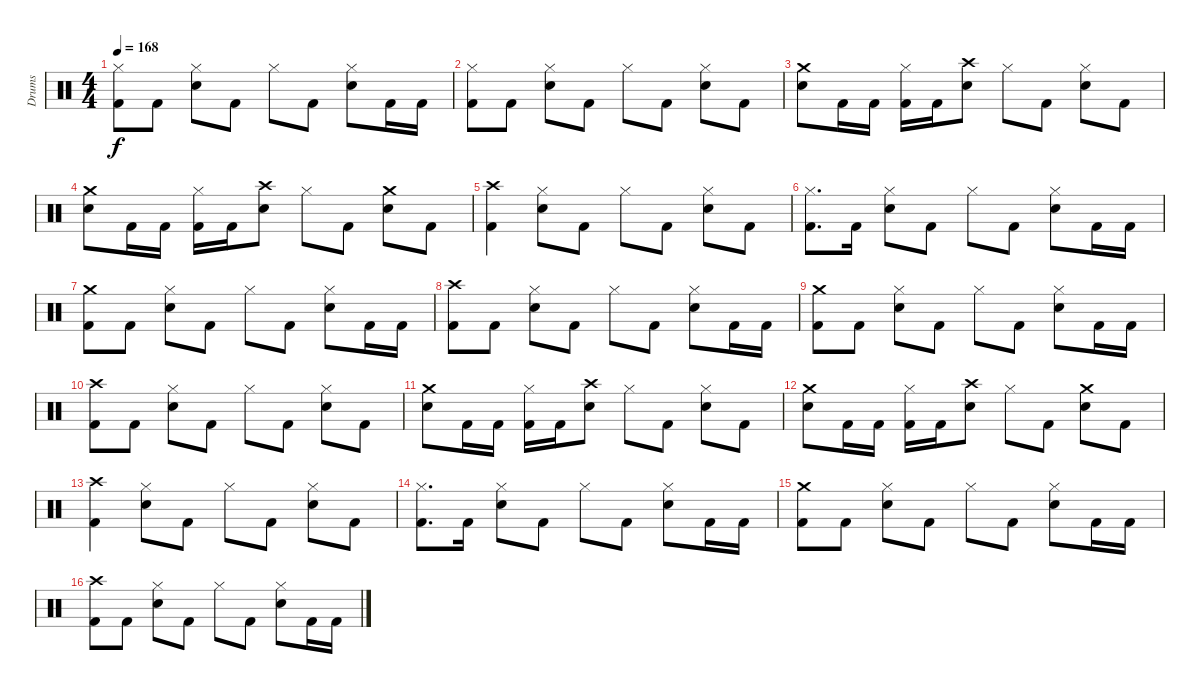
\bracketExtendMode groupsimilarinstruments
\track ("Drumkit" "Drums") {solo instrument percussion}
\staff {score}
\articulation defaults
\ts (4 4)
\tempo 168
\clef neutral
\ks c
("Hi-Hat (closed)" "Kick (hit) 2").8{dy f} "Kick (hit) 2".8 ("Hi-Hat (closed)" "Snare (hit) 2").8 "Kick (hit) 2".8 "Hi-Hat (closed)".8 "Kick (hit) 2".8 ("Hi-Hat (closed)" "Snare (hit) 2").8 "Kick (hit) 2".16 "Kick (hit) 2".16 |
("Hi-Hat (closed)" "Kick (hit) 2").8 "Kick (hit) 2".8 ("Hi-Hat (closed)" "Snare (hit) 2").8 "Kick (hit) 2".8 "Hi-Hat (closed)".8 "Kick (hit) 2".8 ("Hi-Hat (closed)" "Snare (hit) 2").8 "Kick (hit) 2".8 |
("Crash medium (hit)" "Snare (hit) 2").8 "Kick (hit) 2".16 "Kick (hit) 2".16 ("Hi-Hat (closed)" "Kick (hit) 2").16 "Kick (hit) 2".16 ("Crash high (hit)" "Snare (hit) 2").8 "Hi-Hat (closed)".8 "Kick (hit) 2".8 ("Hi-Hat (closed)" "Snare (hit) 2").8 "Kick (hit) 2".8 |
("Crash medium (hit)" "Snare (hit) 2").8 "Kick (hit) 2".16 "Kick (hit) 2".16 ("Hi-Hat (closed)" "Kick (hit) 2").16 "Kick (hit) 2".16 ("Crash high (hit)" "Snare (hit) 2").8 "Hi-Hat (closed)".8 "Kick (hit) 2".8 ("Crash medium (hit)" "Snare (hit) 2").8 "Kick (hit) 2".8 |
("Crash high (hit)" "Kick (hit) 2").4 ("Hi-Hat (closed)" "Snare (hit) 2").8 "Kick (hit) 2".8 "Hi-Hat (closed)".8 "Kick (hit) 2".8 ("Hi-Hat (closed)" "Snare (hit) 2").8 "Kick (hit) 2".8 |
("Hi-Hat (closed)" "Kick (hit) 2").8{d} "Kick (hit) 2".16 ("Hi-Hat (closed)" "Snare (hit) 2").8 "Kick (hit) 2".8 "Hi-Hat (closed)".8 "Kick (hit) 2".8 ("Hi-Hat (closed)" "Snare (hit) 2").8 "Kick (hit) 2".16 "Kick (hit) 2".16 |
("Crash medium (hit)" "Kick (hit) 2").8 "Kick (hit) 2".8 ("Hi-Hat (closed)" "Snare (hit) 2").8 "Kick (hit) 2".8 "Hi-Hat (closed)".8 "Kick (hit) 2".8 ("Hi-Hat (closed)" "Snare (hit) 2").8 "Kick (hit) 2".16 "Kick (hit) 2".16 |
("Crash high (hit)" "Kick (hit) 2").8 "Kick (hit) 2".8 ("Hi-Hat (closed)" "Snare (hit) 2").8 "Kick (hit) 2".8 "Hi-Hat (closed)".8 "Kick (hit) 2".8 ("Hi-Hat (closed)" "Snare (hit) 2").8 "Kick (hit) 2".16 "Kick (hit) 2".16 |
("Crash medium (hit)" "Kick (hit) 2").8 "Kick (hit) 2".8 ("Hi-Hat (closed)" "Snare (hit) 2").8 "Kick (hit) 2".8 "Hi-Hat (closed)".8 "Kick (hit) 2".8 ("Hi-Hat (closed)" "Snare (hit) 2").8 "Kick (hit) 2".16 "Kick (hit) 2".16 |
("Crash high (hit)" "Kick (hit) 2").8 "Kick (hit) 2".8 ("Hi-Hat (closed)" "Snare (hit) 2").8 "Kick (hit) 2".8 "Hi-Hat (closed)".8 "Kick (hit) 2".8 ("Hi-Hat (closed)" "Snare (hit) 2").8 "Kick (hit) 2".8 |
("Crash medium (hit)" "Snare (hit) 2").8 "Kick (hit) 2".16 "Kick (hit) 2".16 ("Hi-Hat (closed)" "Kick (hit) 2").16 "Kick (hit) 2".16 ("Crash high (hit)" "Snare (hit) 2").8 "Hi-Hat (closed)".8 "Kick (hit) 2".8 ("Hi-Hat (closed)" "Snare (hit) 2").8 "Kick (hit) 2".8 |
("Crash medium (hit)" "Snare (hit) 2").8 "Kick (hit) 2".16 "Kick (hit) 2".16 ("Hi-Hat (closed)" "Kick (hit) 2").16 "Kick (hit) 2".16 ("Crash high (hit)" "Snare (hit) 2").8 "Hi-Hat (closed)".8 "Kick (hit) 2".8 ("Crash medium (hit)" "Snare (hit) 2").8 "Kick (hit) 2".8 |
("Crash high (hit)" "Kick (hit) 2").4 ("Hi-Hat (closed)" "Snare (hit) 2").8 "Kick (hit) 2".8 "Hi-Hat (closed)".8 "Kick (hit) 2".8 ("Hi-Hat (closed)" "Snare (hit) 2").8 "Kick (hit) 2".8 |
("Hi-Hat (closed)" "Kick (hit) 2").8{d} "Kick (hit) 2".16 ("Hi-Hat (closed)" "Snare (hit) 2").8 "Kick (hit) 2".8 "Hi-Hat (closed)".8 "Kick (hit) 2".8 ("Hi-Hat (closed)" "Snare (hit) 2").8 "Kick (hit) 2".16 "Kick (hit) 2".16 |
("Crash medium (hit)" "Kick (hit) 2").8 "Kick (hit) 2".8 ("Hi-Hat (closed)" "Snare (hit) 2").8 "Kick (hit) 2".8 "Hi-Hat (closed)".8 "Kick (hit) 2".8 ("Hi-Hat (closed)" "Snare (hit) 2").8 "Kick (hit) 2".16 "Kick (hit) 2".16 |
("Crash high (hit)" "Kick (hit) 2").8 "Kick (hit) 2".8 ("Hi-Hat (closed)" "Snare (hit) 2").8 "Kick (hit) 2".8 "Hi-Hat (closed)".8 "Kick (hit) 2".8 ("Hi-Hat (closed)" "Snare (hit) 2").8 "Kick (hit) 2".16 "Kick (hit) 2".16
